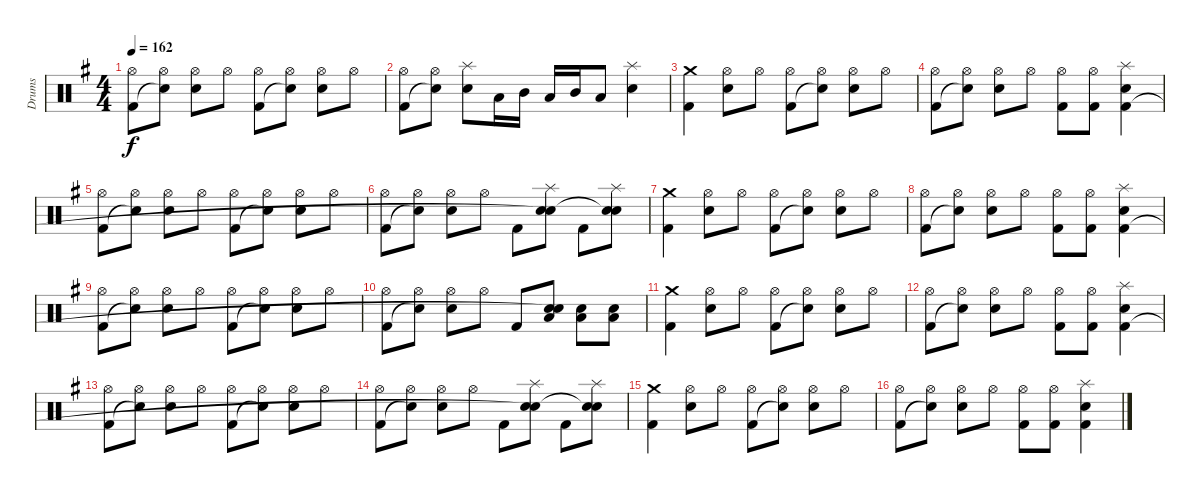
\track ("Drums" "Drums") {instrument percussion}
\staff {score}
\articulation defaults
\ts (4 4)
\tempo 162
\clef neutral
\ks g
("Hi-Hat (open)" "Kick (hit) 2").8{dy f} ("Hi-Hat (open)" "Snare (hit)"{t}).8 ("Hi-Hat (open)" "Electric Snare (hit)").8 "Hi-Hat (open)".8 ("Hi-Hat (open)" "Kick (hit) 2").8 ("Hi-Hat (open)" "Snare (hit)"{t}).8 ("Hi-Hat (open)" "Electric Snare (hit)").8 "Hi-Hat (open)".8 |
("Hi-Hat (open)" "Kick (hit) 2").8 ("Hi-Hat (open)" "Snare (hit)"{t}).8 ("Splash (hit)" "Electric Snare (hit)").8 "Low Tom (hit)".16 "Mid Tom (hit)".16 "Low Tom (hit)".16 "Mid Tom (hit)".16 "Low Tom (hit)".8 ("Splash (hit)" "Electric Snare (hit)").4 |
("Crash medium (hit)" "Kick (hit) 2").4 ("Hi-Hat (open)" "Electric Snare (hit)").8 "Hi-Hat (open)".8 ("Hi-Hat (open)" "Kick (hit) 2").8 ("Hi-Hat (open)" "Snare (hit)"{t}).8 ("Hi-Hat (open)" "Electric Snare (hit)").8 "Hi-Hat (open)".8 |
("Hi-Hat (open)" "Kick (hit) 2").8 ("Hi-Hat (open)" "Snare (hit)"{t}).8 ("Hi-Hat (open)" "Electric Snare (hit)").8 "Hi-Hat (open)".8 ("Hi-Hat (open)" "Kick (hit) 2").8 ("Hi-Hat (open)" "Kick (hit) 2").8 ("Splash (hit)" "Electric Snare (hit)" "Kick (hit) 2").4 |
("Hi-Hat (open)" "Kick (hit) 2").8 ("Hi-Hat (open)" "Snare (hit)"{t}).8 ("Hi-Hat (open)" "Electric Snare (hit)").8 "Hi-Hat (open)".8 ("Hi-Hat (open)" "Kick (hit) 2").8 ("Hi-Hat (open)" "Snare (hit)"{t}).8 ("Hi-Hat (open)" "Electric Snare (hit)").8 "Hi-Hat (open)".8 |
("Hi-Hat (open)" "Kick (hit) 2").8 ("Hi-Hat (open)" "Snare (hit)"{t}).8 ("Hi-Hat (open)" "Electric Snare (hit)").8 "Hi-Hat (open)".8 "Kick (hit) 2".8 ("Splash (hit)" "Electric Snare (hit)" "Snare (hit)"{t}).8 "Kick (hit) 2".8 ("Splash (hit)" "Electric Snare (hit)" "Snare (hit)"{t}).8 |
("Crash medium (hit)" "Kick (hit) 2").4 ("Hi-Hat (open)" "Electric Snare (hit)").8 "Hi-Hat (open)".8 ("Hi-Hat (open)" "Kick (hit) 2").8 ("Hi-Hat (open)" "Snare (hit)"{t}).8 ("Hi-Hat (open)" "Electric Snare (hit)").8 "Hi-Hat (open)".8 |
("Hi-Hat (open)" "Kick (hit) 2").8 ("Hi-Hat (open)" "Snare (hit)"{t}).8 ("Hi-Hat (open)" "Electric Snare (hit)").8 "Hi-Hat (open)".8 ("Hi-Hat (open)" "Kick (hit) 2").8 ("Hi-Hat (open)" "Kick (hit) 2").8 ("Splash (hit)" "Electric Snare (hit)" "Kick (hit) 2").4 |
("Hi-Hat (open)" "Kick (hit) 2").8 ("Hi-Hat (open)" "Snare (hit)"{t}).8 ("Hi-Hat (open)" "Electric Snare (hit)").8 "Hi-Hat (open)".8 ("Hi-Hat (open)" "Kick (hit) 2").8 ("Hi-Hat (open)" "Snare (hit)"{t}).8 ("Hi-Hat (open)" "Electric Snare (hit)").8 "Hi-Hat (open)".8 |
("Hi-Hat (open)" "Kick (hit) 2").8 ("Hi-Hat (open)" "Snare (hit)"{t}).8 ("Hi-Hat (open)" "Electric Snare (hit)").8 "Hi-Hat (open)".8 "Kick (hit) 2".8 ("Electric Snare (hit)" "Low Tom (hit)" "Snare (hit)"{t}).8 ("Electric Snare (hit)" "Low Tom (hit)").8 ("Electric Snare (hit)" "Low Tom (hit)").8 |
("Crash medium (hit)" "Kick (hit) 2").4 ("Hi-Hat (open)" "Electric Snare (hit)").8 "Hi-Hat (open)".8 ("Hi-Hat (open)" "Kick (hit) 2").8 ("Hi-Hat (open)" "Snare (hit)"{t}).8 ("Hi-Hat (open)" "Electric Snare (hit)").8 "Hi-Hat (open)".8 |
("Hi-Hat (open)" "Kick (hit) 2").8 ("Hi-Hat (open)" "Snare (hit)"{t}).8 ("Hi-Hat (open)" "Electric Snare (hit)").8 "Hi-Hat (open)".8 ("Hi-Hat (open)" "Kick (hit) 2").8 ("Hi-Hat (open)" "Kick (hit) 2").8 ("Splash (hit)" "Electric Snare (hit)" "Kick (hit) 2").4 |
("Hi-Hat (open)" "Kick (hit) 2").8 ("Hi-Hat (open)" "Snare (hit)"{t}).8 ("Hi-Hat (open)" "Electric Snare (hit)").8 "Hi-Hat (open)".8 ("Hi-Hat (open)" "Kick (hit) 2").8 ("Hi-Hat (open)" "Snare (hit)"{t}).8 ("Hi-Hat (open)" "Electric Snare (hit)").8 "Hi-Hat (open)".8 |
("Hi-Hat (open)" "Kick (hit) 2").8 ("Hi-Hat (open)" "Snare (hit)"{t}).8 ("Hi-Hat (open)" "Electric Snare (hit)").8 "Hi-Hat (open)".8 "Kick (hit) 2".8 ("Splash (hit)" "Electric Snare (hit)" "Snare (hit)"{t}).8 "Kick (hit) 2".8 ("Splash (hit)" "Electric Snare (hit)" "Snare (hit)"{t}).8 |
("Crash medium (hit)" "Kick (hit) 2").4 ("Hi-Hat (open)" "Electric Snare (hit)").8 "Hi-Hat (open)".8 ("Hi-Hat (open)" "Kick (hit) 2").8 ("Hi-Hat (open)" "Snare (hit)"{t}).8 ("Hi-Hat (open)" "Electric Snare (hit)").8 "Hi-Hat (open)".8 |
("Hi-Hat (open)" "Kick (hit) 2").8 ("Hi-Hat (open)" "Snare (hit)"{t}).8 ("Hi-Hat (open)" "Electric Snare (hit)").8 "Hi-Hat (open)".8 ("Hi-Hat (open)" "Kick (hit) 2").8 ("Hi-Hat (open)" "Kick (hit) 2").8 ("Splash (hit)" "Electric Snare (hit)" "Kick (hit) 2").4
